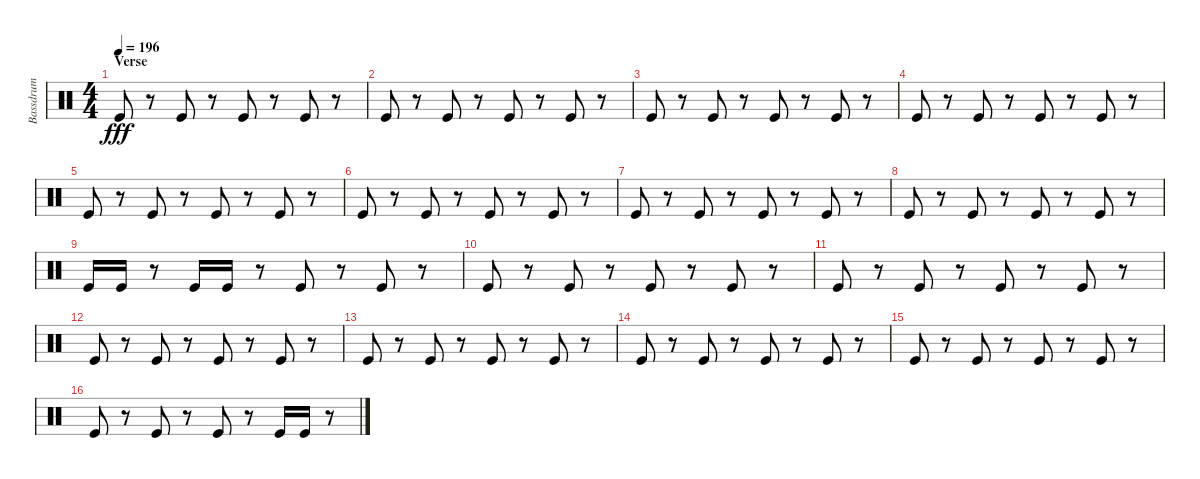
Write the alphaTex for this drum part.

\track ("Bassdrum" "Bassdrum") {instrument percussion}
\staff {score}
\articulation defaults
\ts (4 4)
\section ("" "Verse")
\tempo 196
\clef neutral
\ks c "Kick (hit)".8{dy fff}
r.8 "Kick (hit)".8 r.8 "Kick (hit)".8 r.8 "Kick (hit)".8 r.8 |
"Kick (hit)".8 r.8 "Kick (hit)".8 r.8 "Kick (hit)".8 r.8 "Kick (hit)".8 r.8 |
"Kick (hit)".8 r.8 "Kick (hit)".8 r.8 "Kick (hit)".8 r.8 "Kick (hit)".8 r.8 |
"Kick (hit)".8 r.8 "Kick (hit)".8 r.8 "Kick (hit)".8 r.8 "Kick (hit)".8 r.8 |
"Kick (hit)".8 r.8 "Kick (hit)".8 r.8 "Kick (hit)".8 r.8 "Kick (hit)".8 r.8 |
"Kick (hit)".8 r.8 "Kick (hit)".8 r.8 "Kick (hit)".8 r.8 "Kick (hit)".8 r.8 |
"Kick (hit)".8 r.8 "Kick (hit)".8 r.8 "Kick (hit)".8 r.8 "Kick (hit)".8 r.8 |
"Kick (hit)".8 r.8 "Kick (hit)".8 r.8 "Kick (hit)".8 r.8 "Kick (hit)".8 r.8 |
"Kick (hit)".16 "Kick (hit)".16 r.8 "Kick (hit)".16 "Kick (hit)".16 r.8 "Kick (hit)".8 r.8 "Kick (hit)".8 r.8 |
"Kick (hit)".8 r.8 "Kick (hit)".8 r.8 "Kick (hit)".8 r.8 "Kick (hit)".8 r.8 |
"Kick (hit)".8 r.8 "Kick (hit)".8 r.8 "Kick (hit)".8 r.8 "Kick (hit)".8 r.8 |
"Kick (hit)".8 r.8 "Kick (hit)".8 r.8 "Kick (hit)".8 r.8 "Kick (hit)".8 r.8 |
"Kick (hit)".8 r.8 "Kick (hit)".8 r.8 "Kick (hit)".8 r.8 "Kick (hit)".8 r.8 |
"Kick (hit)".8 r.8 "Kick (hit)".8 r.8 "Kick (hit)".8 r.8 "Kick (hit)".8 r.8 |
"Kick (hit)".8 r.8 "Kick (hit)".8 r.8 "Kick (hit)".8 r.8 "Kick (hit)".8 r.8 |
"Kick (hit)".8 r.8 "Kick (hit)".8 r.8 "Kick (hit)".8 r.8 "Kick (hit)".16 "Kick (hit)".16 r.8
